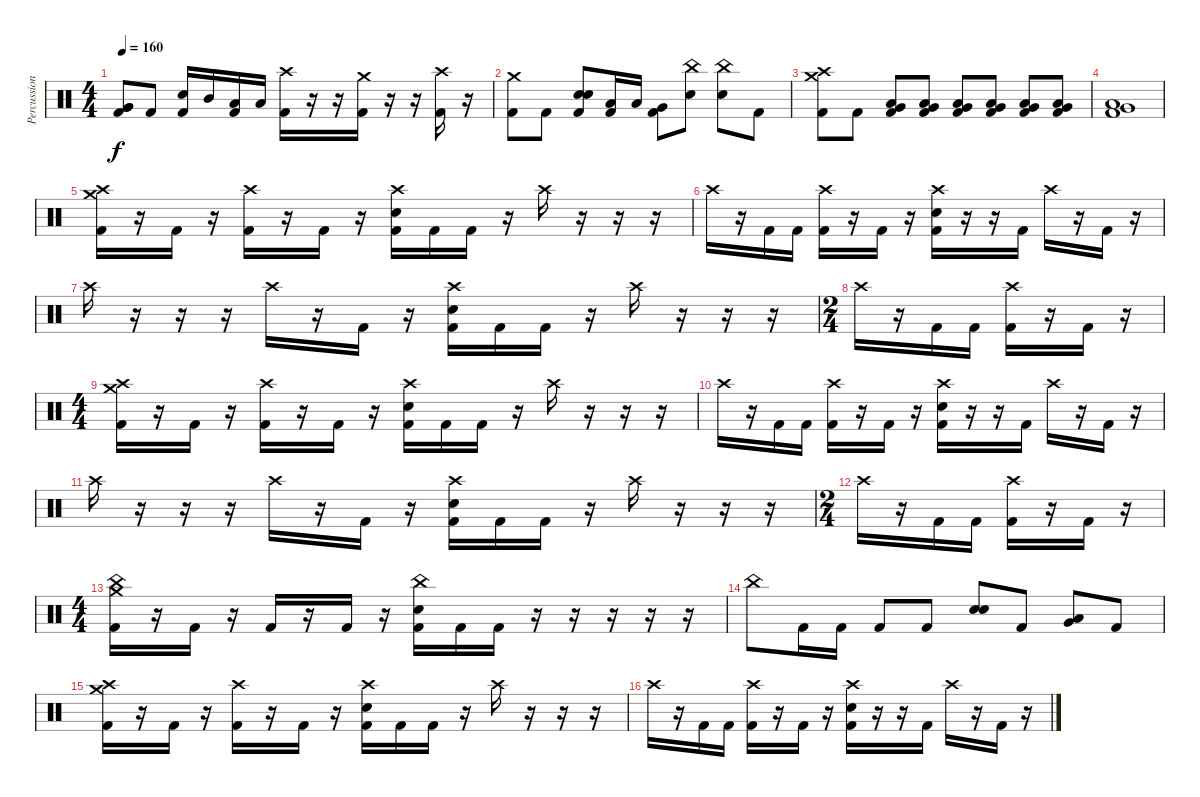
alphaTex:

\track ("Percussion" "Percussion") {instrument percussion}
\staff {score}
\articulation defaults
\ts (4 4)
\tempo 160
\clef neutral
\ks c
("Very Low Tom (hit)" "Very Low Tom (hit)" "Kick (hit) 2").8{dy f} "Kick (hit) 2".8 ("Electric Snare (hit)" "Kick (hit) 2").16 "Mid Tom (hit)".16 ("Low Tom (hit)" "Kick (hit) 2").16 "Low Tom (hit)".16 ("Crash high (hit)" "Kick (hit) 2").16 r.16 r.16 ("Crash medium (hit)" "Kick (hit) 2").16 r.16 r.16 ("Crash high (hit)" "Kick (hit) 2").16 r.16 |
("Crash medium (hit)" "Kick (hit) 2").8 "Kick (hit) 2".8 ("Electric Snare (hit)" "Electric Snare (hit)" "Kick (hit) 2").8 ("Low Tom (hit)" "Kick (hit) 2").16 "Low Tom (hit)".16 ("Very Low Tom (hit)" "Kick (hit) 2").8 ("China (hit)" "Electric Snare (hit)").8 ("China (hit)" "Electric Snare (hit)").8 "Kick (hit) 2".8 |
("Crash high (hit)" "Crash medium (hit)" "Kick (hit) 2").8 "Kick (hit) 2".8 ("Low Tom (hit)" "Very Low Tom (hit)" "Kick (hit) 2").8 ("Low Tom (hit)" "Very Low Tom (hit)" "Kick (hit) 2").8 ("Low Tom (hit)" "Very Low Tom (hit)" "Kick (hit) 2").8 ("Low Tom (hit)" "Very Low Tom (hit)" "Kick (hit) 2").8 ("Low Tom (hit)" "Very Low Tom (hit)" "Kick (hit) 2").8 ("Low Tom (hit)" "Very Low Tom (hit)" "Kick (hit) 2").8 |
("Low Tom (hit)" "Very Low Tom (hit)" "Kick (hit) 2").1 |
("Crash high (hit)" "Crash medium (hit)" "Kick (hit) 2").16 r.16 "Kick (hit) 2".16 r.16 ("Crash high (hit)" "Kick (hit) 2").16 r.16 "Kick (hit) 2".16 r.16 ("Crash high (hit)" "Electric Snare (hit)" "Kick (hit) 2").16 "Kick (hit) 2".16 "Kick (hit) 2".16 r.16 "Crash high (hit)".16 r.16 r.16 r.16 |
"Crash high (hit)".16 r.16 "Kick (hit) 2".16 "Kick (hit) 2".16 ("Crash high (hit)" "Kick (hit) 2").16 r.16 "Kick (hit) 2".16 r.16 ("Crash high (hit)" "Electric Snare (hit)" "Kick (hit) 2").16 r.16 r.16 "Kick (hit) 2".16 "Crash high (hit)".16 r.16 "Kick (hit) 2".16 r.16 |
"Crash high (hit)".16 r.16 r.16 r.16 "Crash high (hit)".16 r.16 "Kick (hit) 2".16 r.16 ("Crash high (hit)" "Electric Snare (hit)" "Kick (hit) 2").16 "Kick (hit) 2".16 "Kick (hit) 2".16 r.16 "Crash high (hit)".16 r.16 r.16 r.16 |
\ts (2 4)
"Crash high (hit)".16 r.16 "Kick (hit) 2".16 "Kick (hit) 2".16 ("Crash high (hit)" "Kick (hit) 2").16 r.16 "Kick (hit) 2".16 r.16 |
\ts (4 4)
("Crash high (hit)" "Crash medium (hit)" "Kick (hit) 2").16 r.16 "Kick (hit) 2".16 r.16 ("Crash high (hit)" "Kick (hit) 2").16 r.16 "Kick (hit) 2".16 r.16 ("Crash high (hit)" "Electric Snare (hit)" "Kick (hit) 2").16 "Kick (hit) 2".16 "Kick (hit) 2".16 r.16 "Crash high (hit)".16 r.16 r.16 r.16 |
"Crash high (hit)".16 r.16 "Kick (hit) 2".16 "Kick (hit) 2".16 ("Crash high (hit)" "Kick (hit) 2").16 r.16 "Kick (hit) 2".16 r.16 ("Crash high (hit)" "Electric Snare (hit)" "Kick (hit) 2").16 r.16 r.16 "Kick (hit) 2".16 "Crash high (hit)".16 r.16 "Kick (hit) 2".16 r.16 |
"Crash high (hit)".16 r.16 r.16 r.16 "Crash high (hit)".16 r.16 "Kick (hit) 2".16 r.16 ("Crash high (hit)" "Electric Snare (hit)" "Kick (hit) 2").16 "Kick (hit) 2".16 "Kick (hit) 2".16 r.16 "Crash high (hit)".16 r.16 r.16 r.16 |
\ts (2 4)
"Crash high (hit)".16 r.16 "Kick (hit) 2".16 "Kick (hit) 2".16 ("Crash high (hit)" "Kick (hit) 2").16 r.16 "Kick (hit) 2".16 r.16 |
\ts (4 4)
("China (hit)" "Crash medium (hit)" "Kick (hit) 2").16 r.16 "Kick (hit) 2".16 r.16 "Kick (hit) 2".16 r.16 "Kick (hit) 2".16 r.16 ("China (hit)" "Electric Snare (hit)" "Kick (hit) 2").16 "Kick (hit) 2".16 "Kick (hit) 2".16 r.16 r.16 r.16 r.16 r.16 |
"China (hit)".8 "Kick (hit) 2".16 "Kick (hit) 2".16 "Kick (hit) 2".8 "Kick (hit) 2".8 ("Electric Snare (hit)" "Electric Snare (hit)").8 "Kick (hit) 2".8 ("Very Low Tom (hit)" "Low Tom (hit)").8 "Kick (hit) 2".8 |
("Crash high (hit)" "Crash medium (hit)" "Kick (hit) 2").16 r.16 "Kick (hit) 2".16 r.16 ("Crash high (hit)" "Kick (hit) 2").16 r.16 "Kick (hit) 2".16 r.16 ("Crash high (hit)" "Electric Snare (hit)" "Kick (hit) 2").16 "Kick (hit) 2".16 "Kick (hit) 2".16 r.16 "Crash high (hit)".16 r.16 r.16 r.16 |
"Crash high (hit)".16 r.16 "Kick (hit) 2".16 "Kick (hit) 2".16 ("Crash high (hit)" "Kick (hit) 2").16 r.16 "Kick (hit) 2".16 r.16 ("Crash high (hit)" "Electric Snare (hit)" "Kick (hit) 2").16 r.16 r.16 "Kick (hit) 2".16 "Crash high (hit)".16 r.16 "Kick (hit) 2".16 r.16
